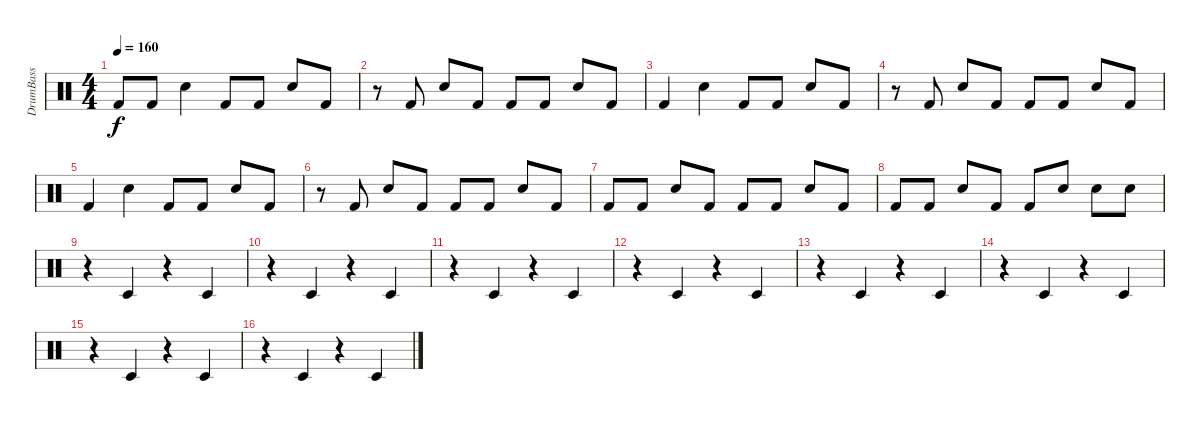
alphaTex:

\track ("DrumBass" "DrumBass") {instrument percussion}
\staff {score}
\articulation defaults
\ts (4 4)
\tempo 160
\clef neutral
\ks c "Kick (hit) 2".8{dy f} "Kick (hit) 2".8 "Snare (hit) 2".4 "Kick (hit) 2".8 "Kick (hit) 2".8 "Snare (hit) 2".8 "Kick (hit) 2".8
|
r.8 "Kick (hit) 2".8 "Snare (hit) 2".8 "Kick (hit) 2".8 "Kick (hit) 2".8 "Kick (hit) 2".8 "Snare (hit) 2".8 "Kick (hit) 2".8 |
"Kick (hit) 2".4 "Snare (hit) 2".4 "Kick (hit) 2".8 "Kick (hit) 2".8 "Snare (hit) 2".8 "Kick (hit) 2".8 |
r.8 "Kick (hit) 2".8 "Snare (hit) 2".8 "Kick (hit) 2".8 "Kick (hit) 2".8 "Kick (hit) 2".8 "Snare (hit) 2".8 "Kick (hit) 2".8 |
"Kick (hit) 2".4 "Snare (hit) 2".4 "Kick (hit) 2".8 "Kick (hit) 2".8 "Snare (hit) 2".8 "Kick (hit) 2".8 |
r.8 "Kick (hit) 2".8 "Snare (hit) 2".8 "Kick (hit) 2".8 "Kick (hit) 2".8 "Kick (hit) 2".8 "Snare (hit) 2".8 "Kick (hit) 2".8 |
"Kick (hit) 2".8 "Kick (hit) 2".8 "Snare (hit) 2".8 "Kick (hit) 2".8 "Kick (hit) 2".8 "Kick (hit) 2".8 "Snare (hit) 2".8 "Kick (hit) 2".8 |
"Kick (hit) 2".8 "Kick (hit) 2".8 "Snare (hit) 2".8 "Kick (hit) 2".8 "Kick (hit) 2".8 "Snare (hit) 2".8 "Snare (hit) 2".8 "Snare (hit) 2".8 |
r.4 "Timbale low (hit)".4 r.4 "Timbale low (hit)".4 |
r.4 "Timbale low (hit)".4 r.4 "Timbale low (hit)".4 |
r.4 "Timbale low (hit)".4 r.4 "Timbale low (hit)".4 |
r.4 "Timbale low (hit)".4 r.4 "Timbale low (hit)".4 |
r.4 "Timbale low (hit)".4 r.4 "Timbale low (hit)".4 |
r.4 "Timbale low (hit)".4 r.4 "Timbale low (hit)".4 |
r.4 "Timbale low (hit)".4 r.4 "Timbale low (hit)".4 |
r.4 "Timbale low (hit)".4 r.4 "Timbale low (hit)".4
